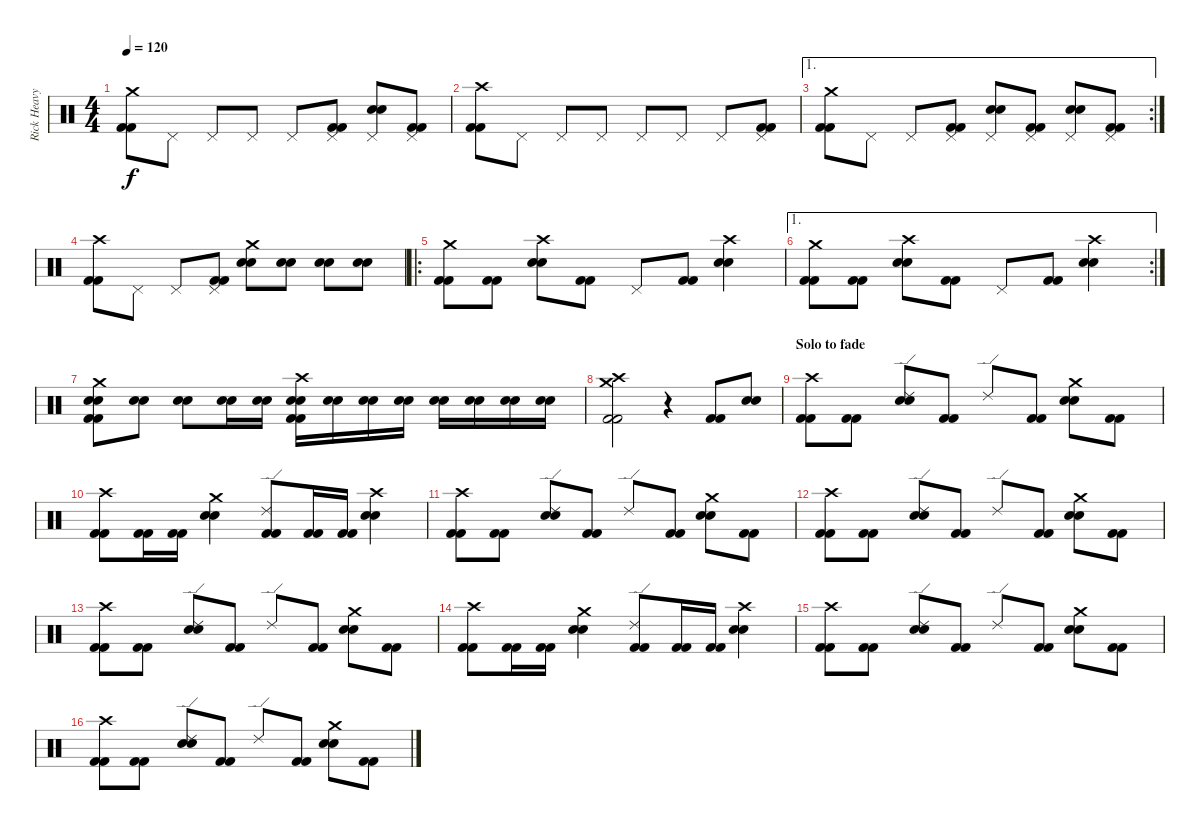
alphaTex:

\track ("Rick Heavy" "Rick Heavy") {instrument percussion}
\staff {score}
\articulation defaults
\ts (4 4)
\tempo 120
\clef neutral
\ks c
("Crash medium (hit)" "Kick (hit) 2" "Kick (hit) 2").8{dy f} "Pedal Hi-Hat (hit)".8 "Pedal Hi-Hat (hit)".8 "Pedal Hi-Hat (hit)".8 "Pedal Hi-Hat (hit)".8 ("Pedal Hi-Hat (hit)" "Kick (hit) 2" "Kick (hit) 2").8 ("Pedal Hi-Hat (hit)" "Electric Snare (hit)" "Snare (hit) 2").8 ("Pedal Hi-Hat (hit)" "Kick (hit) 2" "Kick (hit) 2").8 |
("Crash high (hit)" "Kick (hit) 2" "Kick (hit) 2").8 "Pedal Hi-Hat (hit)".8 "Pedal Hi-Hat (hit)".8 "Pedal Hi-Hat (hit)".8 "Pedal Hi-Hat (hit)".8 "Pedal Hi-Hat (hit)".8 "Pedal Hi-Hat (hit)".8 ("Pedal Hi-Hat (hit)" "Kick (hit) 2" "Kick (hit) 2").8 |
\ae 1
\rc 2
("Crash medium (hit)" "Kick (hit) 2" "Kick (hit) 2").8 "Pedal Hi-Hat (hit)".8 "Pedal Hi-Hat (hit)".8 ("Pedal Hi-Hat (hit)" "Kick (hit) 2" "Kick (hit) 2").8 ("Pedal Hi-Hat (hit)" "Electric Snare (hit)" "Snare (hit) 2").8 ("Pedal Hi-Hat (hit)" "Kick (hit) 2" "Kick (hit) 2").8 ("Pedal Hi-Hat (hit)" "Electric Snare (hit)" "Snare (hit) 2").8 ("Pedal Hi-Hat (hit)" "Kick (hit) 2" "Kick (hit) 2").8 |
("Crash high (hit)" "Kick (hit) 2" "Kick (hit) 2").8 "Pedal Hi-Hat (hit)".8 "Pedal Hi-Hat (hit)".8 ("Pedal Hi-Hat (hit)" "Kick (hit) 2" "Kick (hit) 2").8 ("Crash medium (hit)" "Electric Snare (hit)" "Snare (hit) 2").8 ("Electric Snare (hit)" "Snare (hit) 2").8 ("Electric Snare (hit)" "Snare (hit) 2").8 ("Electric Snare (hit)" "Snare (hit) 2").8 |
\ro
("Crash medium (hit)" "Kick (hit) 2" "Kick (hit) 2").8 ("Kick (hit) 2" "Kick (hit) 2").8 ("Crash high (hit)" "Electric Snare (hit)" "Snare (hit) 2").8 ("Kick (hit) 2" "Kick (hit) 2").8 "Pedal Hi-Hat (hit)".8 ("Kick (hit) 2" "Kick (hit) 2").8 ("Crash high (hit)" "Electric Snare (hit)" "Snare (hit) 2").4 |
\ae 1
\rc 2
("Crash medium (hit)" "Kick (hit) 2" "Kick (hit) 2").8 ("Kick (hit) 2" "Kick (hit) 2").8 ("Crash high (hit)" "Electric Snare (hit)" "Snare (hit) 2").8 ("Kick (hit) 2" "Kick (hit) 2").8 "Pedal Hi-Hat (hit)".8 ("Kick (hit) 2" "Kick (hit) 2").8 ("Crash high (hit)" "Electric Snare (hit)" "Snare (hit) 2").4 |
("Crash medium (hit)" "Electric Snare (hit)" "Snare (hit) 2" "Kick (hit) 2" "Kick (hit) 2").8 ("Electric Snare (hit)" "Snare (hit) 2").8 ("Electric Snare (hit)" "Snare (hit) 2").8 ("Electric Snare (hit)" "Snare (hit) 2").16 ("Electric Snare (hit)" "Snare (hit) 2").16 ("Crash high (hit)" "Electric Snare (hit)" "Snare (hit) 2" "Kick (hit) 2" "Kick (hit) 2").16 ("Electric Snare (hit)" "Snare (hit) 2").16 ("Electric Snare (hit)" "Snare (hit) 2").16 ("Electric Snare (hit)" "Snare (hit) 2").16 ("Electric Snare (hit)" "Snare (hit) 2").16 ("Electric Snare (hit)" "Snare (hit) 2").16 ("Electric Snare (hit)" "Snare (hit) 2").16 ("Electric Snare (hit)" "Snare (hit) 2").16 |
("Crash high (hit)" "Crash medium (hit)" "Kick (hit) 2" "Kick (hit) 2").2 r.4 ("Kick (hit) 2" "Kick (hit) 2").8 ("Electric Snare (hit)" "Snare (hit) 2").8 |
\section ("" "Solo to fade")
("Crash high (hit)" "Kick (hit) 2" "Kick (hit) 2").8 ("Kick (hit) 2" "Kick (hit) 2").8 ("Ride (edge) 2" "Electric Snare (hit)" "Snare (hit) 2").8 ("Kick (hit) 2" "Kick (hit) 2").8 "Ride (edge) 2".8 ("Kick (hit) 2" "Kick (hit) 2").8 ("Crash medium (hit)" "Electric Snare (hit)" "Snare (hit) 2").8 ("Kick (hit) 2" "Kick (hit) 2").8 |
("Crash high (hit)" "Kick (hit) 2" "Kick (hit) 2").8 ("Kick (hit) 2" "Kick (hit) 2").16 ("Kick (hit) 2" "Kick (hit) 2").16 ("Crash medium (hit)" "Electric Snare (hit)" "Snare (hit) 2").4 ("Ride (edge) 2" "Kick (hit) 2" "Kick (hit) 2").8 ("Kick (hit) 2" "Kick (hit) 2").16 ("Kick (hit) 2" "Kick (hit) 2").16 ("Crash high (hit)" "Electric Snare (hit)" "Snare (hit) 2").4 |
("Crash high (hit)" "Kick (hit) 2" "Kick (hit) 2").8 ("Kick (hit) 2" "Kick (hit) 2").8 ("Ride (edge) 2" "Electric Snare (hit)" "Snare (hit) 2").8 ("Kick (hit) 2" "Kick (hit) 2").8 "Ride (edge) 2".8 ("Kick (hit) 2" "Kick (hit) 2").8 ("Crash medium (hit)" "Electric Snare (hit)" "Snare (hit) 2").8 ("Kick (hit) 2" "Kick (hit) 2").8 |
("Crash high (hit)" "Kick (hit) 2" "Kick (hit) 2").8 ("Kick (hit) 2" "Kick (hit) 2").8 ("Ride (edge) 2" "Electric Snare (hit)" "Snare (hit) 2").8 ("Kick (hit) 2" "Kick (hit) 2").8 "Ride (edge) 2".8 ("Kick (hit) 2" "Kick (hit) 2").8 ("Crash medium (hit)" "Electric Snare (hit)" "Snare (hit) 2").8 ("Kick (hit) 2" "Kick (hit) 2").8 |
("Crash high (hit)" "Kick (hit) 2" "Kick (hit) 2").8 ("Kick (hit) 2" "Kick (hit) 2").8 ("Ride (edge) 2" "Electric Snare (hit)" "Snare (hit) 2").8 ("Kick (hit) 2" "Kick (hit) 2").8 "Ride (edge) 2".8 ("Kick (hit) 2" "Kick (hit) 2").8 ("Crash medium (hit)" "Electric Snare (hit)" "Snare (hit) 2").8 ("Kick (hit) 2" "Kick (hit) 2").8 |
("Crash high (hit)" "Kick (hit) 2" "Kick (hit) 2").8 ("Kick (hit) 2" "Kick (hit) 2").16 ("Kick (hit) 2" "Kick (hit) 2").16 ("Crash medium (hit)" "Electric Snare (hit)" "Snare (hit) 2").4 ("Ride (edge) 2" "Kick (hit) 2" "Kick (hit) 2").8 ("Kick (hit) 2" "Kick (hit) 2").16 ("Kick (hit) 2" "Kick (hit) 2").16 ("Crash high (hit)" "Electric Snare (hit)" "Snare (hit) 2").4 |
("Crash high (hit)" "Kick (hit) 2" "Kick (hit) 2").8 ("Kick (hit) 2" "Kick (hit) 2").8 ("Ride (edge) 2" "Electric Snare (hit)" "Snare (hit) 2").8 ("Kick (hit) 2" "Kick (hit) 2").8 "Ride (edge) 2".8 ("Kick (hit) 2" "Kick (hit) 2").8 ("Crash medium (hit)" "Electric Snare (hit)" "Snare (hit) 2").8 ("Kick (hit) 2" "Kick (hit) 2").8 |
("Crash high (hit)" "Kick (hit) 2" "Kick (hit) 2").8 ("Kick (hit) 2" "Kick (hit) 2").8 ("Ride (edge) 2" "Electric Snare (hit)" "Snare (hit) 2").8 ("Kick (hit) 2" "Kick (hit) 2").8 "Ride (edge) 2".8 ("Kick (hit) 2" "Kick (hit) 2").8 ("Crash medium (hit)" "Electric Snare (hit)" "Snare (hit) 2").8 ("Kick (hit) 2" "Kick (hit) 2").8
